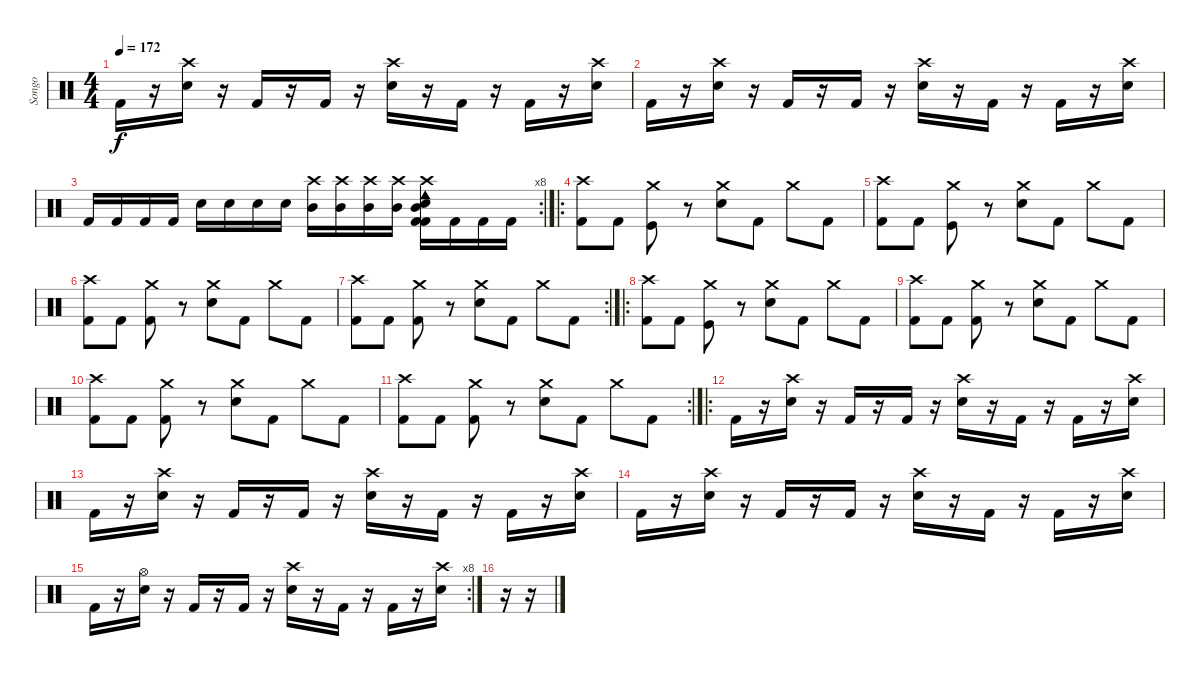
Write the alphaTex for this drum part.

\track ("Songo" "Songo") {instrument percussion}
\staff {score}
\articulation defaults
\ts (4 4)
\tempo 172
\clef neutral
\ks c "Kick (hit) 2".16{dy f}
r.16 ("Electric Snare (hit)" "Crash high (hit)").16 r.16 "Kick (hit) 2".16 r.16 "Kick (hit) 2".16 r.16 ("Crash high (hit)" "Electric Snare (hit)").16 r.16 "Kick (hit) 2".16 r.16 "Kick (hit) 2".16 r.16 ("Electric Snare (hit)" "Crash high (hit)").16 |
"Kick (hit) 2".16 r.16 ("Crash high (hit)" "Electric Snare (hit)").16 r.16 "Kick (hit) 2".16 r.16 "Kick (hit) 2".16 r.16 ("Crash high (hit)" "Electric Snare (hit)").16 r.16 "Kick (hit) 2".16 r.16 "Kick (hit) 2".16 r.16 ("Crash high (hit)" "Electric Snare (hit)").16 |
\rc 8 "Kick (hit) 2".16 "Kick (hit) 2".16 "Kick (hit) 2".16 "Kick (hit) 2".16 "Snare (hit) 2".16 "Snare (hit) 2".16 "Snare (hit) 2".16 "Snare (hit) 2".16
("Mid Tom (hit)" "Crash high (hit)").16 ("Mid Tom (hit)" "Crash high (hit)").16 ("Mid Tom (hit)" "Crash high (hit)").16 ("Mid Tom (hit)" "Crash high (hit)").16 ("Kick (hit) 2" "Crash high (hit)" "Mid Tom (hit)" "Kick (hit) 2" "Snare (hit) 2" "Cowbell low (hit)").16 "Kick (hit) 2".16 "Kick (hit) 2".16 "Kick (hit) 2".16 |
\ro
("Kick (hit) 2" "Crash high (hit)").8 "Kick (hit) 2".8 ("Kick (hit)" "Crash medium (hit)").8 r.8 ("Crash medium (hit)" "Electric Snare (hit)").8 "Kick (hit) 2".8 "Crash medium (hit)".8 "Kick (hit) 2".8 |
("Kick (hit) 2" "Crash high (hit)").8 "Kick (hit) 2".8 ("Kick (hit)" "Crash medium (hit)").8 r.8 ("Crash medium (hit)" "Electric Snare (hit)").8 "Kick (hit) 2".8 "Crash medium (hit)".8 "Kick (hit) 2".8 |
("Kick (hit) 2" "Crash high (hit)").8 "Kick (hit) 2".8 ("Kick (hit) 2" "Crash medium (hit)").8 r.8 ("Crash medium (hit)" "Electric Snare (hit)").8 "Kick (hit) 2".8 "Crash medium (hit)".8 "Kick (hit) 2".8 |
\rc 2
("Kick (hit) 2" "Crash high (hit)").8 "Kick (hit) 2".8 ("Kick (hit) 2" "Crash medium (hit)").8 r.8 ("Crash medium (hit)" "Electric Snare (hit)").8 "Kick (hit) 2".8 "Crash medium (hit)".8 "Kick (hit) 2".8 |
\ro
("Kick (hit) 2" "Crash high (hit)").8 "Kick (hit) 2".8 ("Kick (hit)" "Crash medium (hit)").8 r.8 ("Crash medium (hit)" "Electric Snare (hit)").8 "Kick (hit) 2".8 "Crash medium (hit)".8 "Kick (hit) 2".8 |
("Kick (hit) 2" "Crash high (hit)").8 "Kick (hit) 2".8 ("Kick (hit) 2" "Crash medium (hit)").8 r.8 ("Crash medium (hit)" "Electric Snare (hit)").8 "Kick (hit) 2".8 "Crash medium (hit)".8 "Kick (hit) 2".8 |
("Kick (hit) 2" "Crash high (hit)").8 "Kick (hit) 2".8 ("Kick (hit) 2" "Crash medium (hit)").8 r.8 ("Crash medium (hit)" "Electric Snare (hit)").8 "Kick (hit) 2".8 "Crash medium (hit)".8 "Kick (hit) 2".8 |
\rc 2
("Kick (hit) 2" "Crash high (hit)").8 "Kick (hit) 2".8 ("Kick (hit) 2" "Crash medium (hit)").8 r.8 ("Crash medium (hit)" "Electric Snare (hit)").8 "Kick (hit) 2".8 "Crash medium (hit)".8 "Kick (hit) 2".8 |
\ro "Kick (hit) 2".16
r.16 ("Crash high (hit)" "Electric Snare (hit)").16 r.16 "Kick (hit) 2".16 r.16 "Kick (hit) 2".16 r.16 ("Crash high (hit)" "Electric Snare (hit)").16 r.16 "Kick (hit) 2".16 r.16 "Kick (hit) 2".16 r.16 ("Crash high (hit)" "Electric Snare (hit)").16 |
"Kick (hit) 2".16 r.16 ("Crash high (hit)" "Electric Snare (hit)").16 r.16 "Kick (hit) 2".16 r.16 "Kick (hit) 2".16 r.16 ("Crash high (hit)" "Electric Snare (hit)").16 r.16 "Kick (hit) 2".16 r.16 "Kick (hit) 2".16 r.16 ("Crash high (hit)" "Electric Snare (hit)").16 |
"Kick (hit) 2".16 r.16 ("Crash high (hit)" "Electric Snare (hit)").16 r.16 "Kick (hit) 2".16 r.16 "Kick (hit) 2".16 r.16 ("Crash high (hit)" "Electric Snare (hit)").16 r.16 "Kick (hit) 2".16 r.16 "Kick (hit) 2".16 r.16 ("Crash high (hit)" "Electric Snare (hit)").16 |
\rc 8 "Kick (hit) 2".16
r.16 ("Hi-Hat (open)" "Electric Snare (hit)").16 r.16 "Kick (hit) 2".16 r.16 "Kick (hit) 2".16 r.16 ("Crash high (hit)" "Electric Snare (hit)").16 r.16 "Kick (hit) 2".16 r.16 "Kick (hit) 2".16 r.16 ("Crash high (hit)" "Electric Snare (hit)").16 |
r.16 r.16
